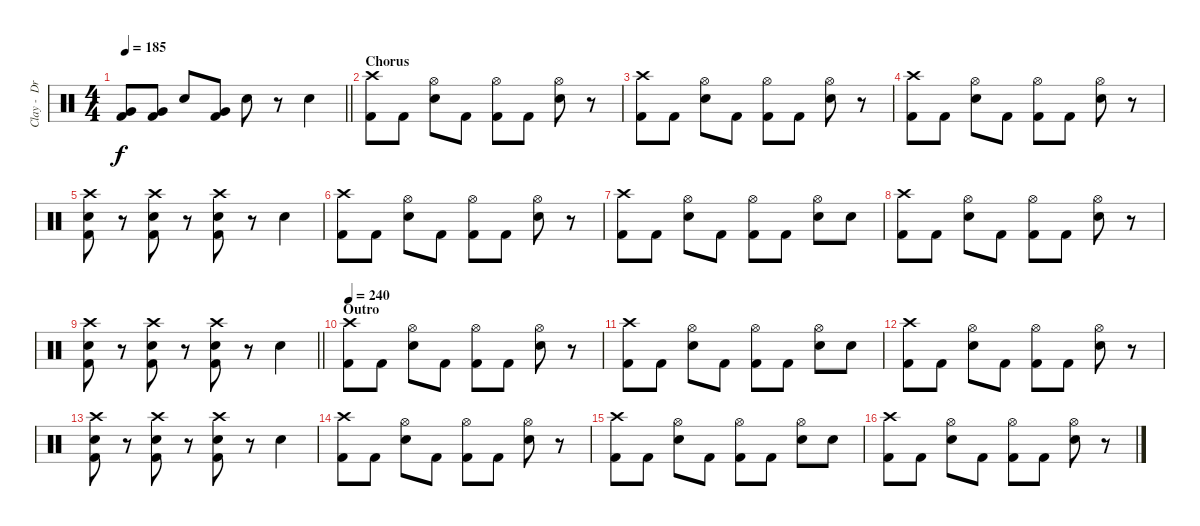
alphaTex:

\track ("Clay -  Drums" "Clay -  Dr") {instrument percussion}
\staff {score}
\articulation defaults
\ts (4 4)
\tempo 185
\clef neutral
\barLineRight lightlight
\ks c
("Very Low Tom (hit)" "Kick (hit) 2").8{dy f} ("Very Low Tom (hit)" "Kick (hit) 2").8 "Electric Snare (hit)".8 ("Very Low Tom (hit)" "Kick (hit) 2").8 "Electric Snare (hit)".8 r.8 "Electric Snare (hit)".4 |
\section ("" "Chorus")
("Crash high (hit)" "Kick (hit) 2").8 "Kick (hit) 2".8 ("Hi-Hat (open)" "Electric Snare (hit)").8 "Kick (hit) 2".8 ("Hi-Hat (open)" "Kick (hit) 2").8 "Kick (hit) 2".8 ("Hi-Hat (open)" "Electric Snare (hit)").8 r.8 |
("Crash high (hit)" "Kick (hit) 2").8 "Kick (hit) 2".8 ("Hi-Hat (open)" "Electric Snare (hit)").8 "Kick (hit) 2".8 ("Hi-Hat (open)" "Kick (hit) 2").8 "Kick (hit) 2".8 ("Hi-Hat (open)" "Electric Snare (hit)").8 r.8 |
("Crash high (hit)" "Kick (hit) 2").8 "Kick (hit) 2".8 ("Hi-Hat (open)" "Electric Snare (hit)").8 "Kick (hit) 2".8 ("Hi-Hat (open)" "Kick (hit) 2").8 "Kick (hit) 2".8 ("Hi-Hat (open)" "Electric Snare (hit)").8 r.8 |
("Crash high (hit)" "Electric Snare (hit)" "Kick (hit) 2").8 r.8 ("Crash high (hit)" "Electric Snare (hit)" "Kick (hit) 2").8 r.8 ("Crash high (hit)" "Electric Snare (hit)" "Kick (hit) 2").8 r.8 "Electric Snare (hit)".4 |
("Crash high (hit)" "Kick (hit) 2").8 "Kick (hit) 2".8 ("Hi-Hat (open)" "Electric Snare (hit)").8 "Kick (hit) 2".8 ("Hi-Hat (open)" "Kick (hit) 2").8 "Kick (hit) 2".8 ("Hi-Hat (open)" "Electric Snare (hit)").8 r.8 |
("Crash high (hit)" "Kick (hit) 2").8 "Kick (hit) 2".8 ("Hi-Hat (open)" "Electric Snare (hit)").8 "Kick (hit) 2".8 ("Hi-Hat (open)" "Kick (hit) 2").8 "Kick (hit) 2".8 ("Hi-Hat (open)" "Electric Snare (hit)").8 "Electric Snare (hit)".8 |
("Crash high (hit)" "Kick (hit) 2").8 "Kick (hit) 2".8 ("Hi-Hat (open)" "Electric Snare (hit)").8 "Kick (hit) 2".8 ("Hi-Hat (open)" "Kick (hit) 2").8 "Kick (hit) 2".8 ("Hi-Hat (open)" "Electric Snare (hit)").8 r.8 |
\barLineRight lightlight
("Crash high (hit)" "Electric Snare (hit)" "Kick (hit) 2").8 r.8 ("Crash high (hit)" "Electric Snare (hit)" "Kick (hit) 2").8 r.8 ("Crash high (hit)" "Electric Snare (hit)" "Kick (hit) 2").8 r.8 "Electric Snare (hit)".4 |
\section ("" "Outro")
\tempo 240
("Crash high (hit)" "Kick (hit) 2").8 "Kick (hit) 2".8 ("Hi-Hat (open)" "Electric Snare (hit)").8 "Kick (hit) 2".8 ("Hi-Hat (open)" "Kick (hit) 2").8 "Kick (hit) 2".8 ("Hi-Hat (open)" "Electric Snare (hit)").8 r.8 |
("Crash high (hit)" "Kick (hit) 2").8 "Kick (hit) 2".8 ("Hi-Hat (open)" "Electric Snare (hit)").8 "Kick (hit) 2".8 ("Hi-Hat (open)" "Kick (hit) 2").8 "Kick (hit) 2".8 ("Hi-Hat (open)" "Electric Snare (hit)").8 "Electric Snare (hit)".8 |
("Crash high (hit)" "Kick (hit) 2").8 "Kick (hit) 2".8 ("Hi-Hat (open)" "Electric Snare (hit)").8 "Kick (hit) 2".8 ("Hi-Hat (open)" "Kick (hit) 2").8 "Kick (hit) 2".8 ("Hi-Hat (open)" "Electric Snare (hit)").8 r.8 |
("Crash high (hit)" "Electric Snare (hit)" "Kick (hit) 2").8 r.8 ("Crash high (hit)" "Electric Snare (hit)" "Kick (hit) 2").8 r.8 ("Crash high (hit)" "Electric Snare (hit)" "Kick (hit) 2").8 r.8 "Electric Snare (hit)".4 |
("Crash high (hit)" "Kick (hit) 2").8 "Kick (hit) 2".8 ("Hi-Hat (open)" "Electric Snare (hit)").8 "Kick (hit) 2".8 ("Hi-Hat (open)" "Kick (hit) 2").8 "Kick (hit) 2".8 ("Hi-Hat (open)" "Electric Snare (hit)").8 r.8 |
("Crash high (hit)" "Kick (hit) 2").8 "Kick (hit) 2".8 ("Hi-Hat (open)" "Electric Snare (hit)").8 "Kick (hit) 2".8 ("Hi-Hat (open)" "Kick (hit) 2").8 "Kick (hit) 2".8 ("Hi-Hat (open)" "Electric Snare (hit)").8 "Electric Snare (hit)".8 |
("Crash high (hit)" "Kick (hit) 2").8 "Kick (hit) 2".8 ("Hi-Hat (open)" "Electric Snare (hit)").8 "Kick (hit) 2".8 ("Hi-Hat (open)" "Kick (hit) 2").8 "Kick (hit) 2".8 ("Hi-Hat (open)" "Electric Snare (hit)").8 r.8
